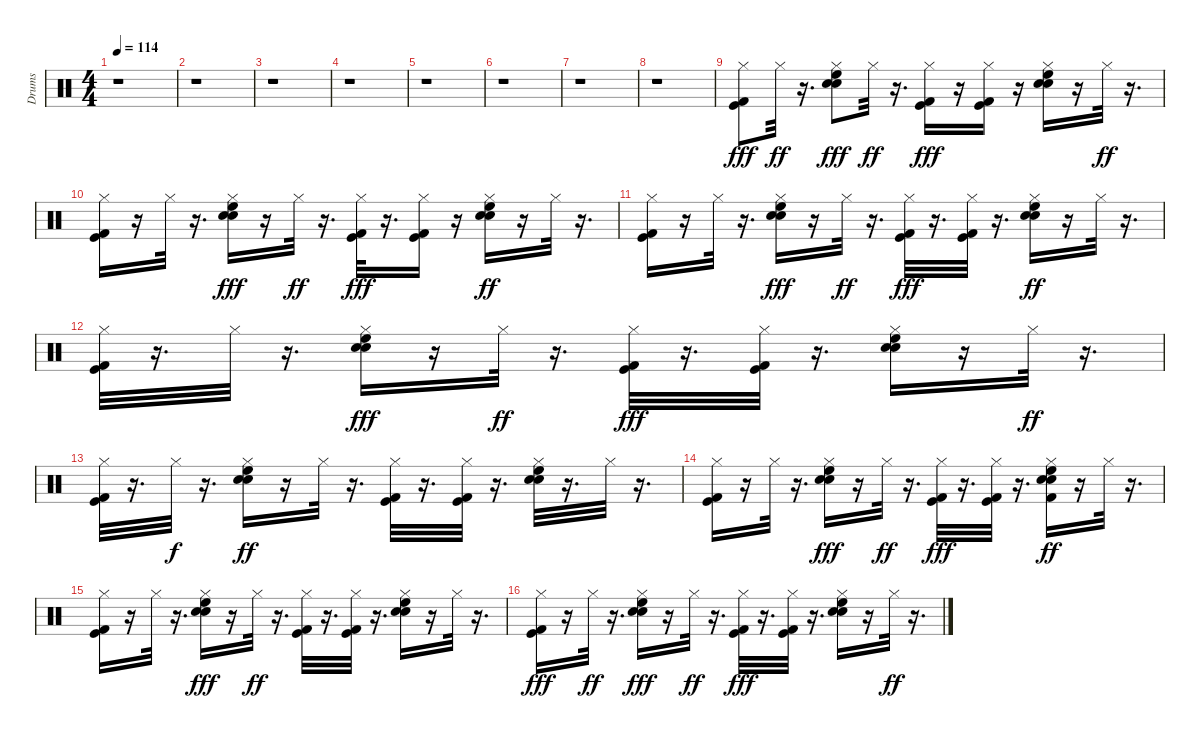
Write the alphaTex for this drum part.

\track ("Drums" "Drums") {instrument percussion}
\staff {score}
\articulation defaults
\ts (4 4)
\tempo 114
\clef neutral
\ks c
r.1{dy fff} |
r.1 |
r.1 |
r.1 |
r.1 |
r.1 |
r.1 |
r.1 |
("Hi-Hat (closed)" "Kick (hit)" "Kick (hit) 2").8{volume 16} "Hi-Hat (closed)".32{dy ff} r.16{d} ("Hi-Hat (closed)" "Snare (hit) 2" "High Floor Tom (hit)" "Electric Snare (hit)").8{dy fff} "Hi-Hat (closed)".32{dy ff} r.16{d} ("Hi-Hat (closed)" "Kick (hit)" "Kick (hit) 2").16{dy fff} r.16 ("Hi-Hat (closed)" "Kick (hit) 2" "Kick (hit)").16 r.16 ("High Floor Tom (hit)" "Snare (hit) 2" "Hi-Hat (closed)" "Electric Snare (hit)").16 r.16 "Hi-Hat (closed)".32{dy ff} r.16{d} |
("Kick (hit)" "Kick (hit) 2" "Hi-Hat (closed)").16 r.16 "Hi-Hat (closed)".32 r.16{d} ("Electric Snare (hit)" "Hi-Hat (closed)" "High Floor Tom (hit)" "Snare (hit) 2").16{dy fff} r.16 "Hi-Hat (closed)".32{dy ff} r.16{d} ("Hi-Hat (closed)" "Kick (hit) 2" "Kick (hit)").32{dy fff} r.16{d} ("Hi-Hat (closed)" "Kick (hit) 2" "Kick (hit)").16 r.16 ("High Floor Tom (hit)" "Snare (hit) 2" "Electric Snare (hit)" "Hi-Hat (closed)").16{dy ff} r.16 "Hi-Hat (closed)".32 r.16{d} |
("Kick (hit) 2" "Kick (hit)" "Hi-Hat (closed)").16 r.16 "Hi-Hat (closed)".32 r.16{d} ("Electric Snare (hit)" "High Floor Tom (hit)" "Hi-Hat (closed)" "Snare (hit) 2").16{dy fff} r.16 "Hi-Hat (closed)".32{dy ff} r.16{d} ("Kick (hit) 2" "Hi-Hat (closed)" "Kick (hit)").32{dy fff} r.16{d} ("Kick (hit) 2" "Hi-Hat (closed)" "Kick (hit)").32 r.16{d} ("High Floor Tom (hit)" "Snare (hit) 2" "Electric Snare (hit)" "Hi-Hat (closed)").16{dy ff} r.16 "Hi-Hat (closed)".32 r.16{d} |
("Kick (hit)" "Kick (hit) 2" "Hi-Hat (closed)").32 r.16{d} "Hi-Hat (closed)".32 r.16{d} ("Hi-Hat (closed)" "Electric Snare (hit)" "Snare (hit) 2" "High Floor Tom (hit)").16{dy fff} r.16 "Hi-Hat (closed)".32{dy ff} r.16{d} ("Hi-Hat (closed)" "Kick (hit) 2" "Kick (hit)").32{dy fff} r.16{d} ("Hi-Hat (closed)" "Kick (hit)" "Kick (hit) 2").32 r.16{d} ("High Floor Tom (hit)" "Snare (hit) 2" "Hi-Hat (closed)" "Electric Snare (hit)").16 r.16 "Hi-Hat (closed)".32{dy ff} r.16{d} |
("Kick (hit)" "Kick (hit) 2" "Hi-Hat (closed)").32 r.16{d} "Hi-Hat (closed)".32{dy f} r.16{d} ("Electric Snare (hit)" "High Floor Tom (hit)" "Snare (hit) 2" "Hi-Hat (closed)").16{dy ff} r.16 "Hi-Hat (closed)".32 r.16{d} ("Kick (hit) 2" "Kick (hit)" "Hi-Hat (closed)").32 r.16{d} ("Kick (hit) 2" "Kick (hit)" "Hi-Hat (closed)").32 r.16{d} ("High Floor Tom (hit)" "Snare (hit) 2" "Electric Snare (hit)" "Hi-Hat (closed)").32 r.16{d} "Hi-Hat (closed)".32 r.16{d} |
("Kick (hit) 2" "Kick (hit)" "Hi-Hat (closed)").16 r.16 "Hi-Hat (closed)".32 r.16{d} ("Electric Snare (hit)" "Hi-Hat (closed)" "Snare (hit) 2" "High Floor Tom (hit)").16{dy fff} r.16 "Hi-Hat (closed)".32{dy ff} r.16{d} ("Kick (hit) 2" "Hi-Hat (closed)" "Kick (hit)").32{dy fff} r.16{d} ("Kick (hit) 2" "Hi-Hat (closed)" "Kick (hit)").32 r.16{d} ("Kick (hit) 2" "Snare (hit) 2" "Electric Snare (hit)" "High Floor Tom (hit)" "Hi-Hat (closed)").16{dy ff} r.16 "Hi-Hat (closed)".32 r.16{d} |
("Kick (hit)" "Kick (hit) 2" "Hi-Hat (closed)").16 r.16 "Hi-Hat (closed)".32 r.16{d} ("Electric Snare (hit)" "High Floor Tom (hit)" "Hi-Hat (closed)" "Snare (hit) 2").16{dy fff} r.16 "Hi-Hat (closed)".32{dy ff} r.16{d} ("Kick (hit) 2" "Kick (hit)" "Hi-Hat (closed)").32 r.16{d} ("Kick (hit) 2" "Kick (hit)" "Hi-Hat (closed)").32 r.16{d} ("Electric Snare (hit)" "Snare (hit) 2" "High Floor Tom (hit)" "Hi-Hat (closed)").16 r.16 "Hi-Hat (closed)".32 r.16{d} |
("Hi-Hat (closed)" "Kick (hit)" "Kick (hit) 2").16{dy fff} r.16 "Hi-Hat (closed)".32{dy ff} r.16{d} ("Electric Snare (hit)" "Snare (hit) 2" "Hi-Hat (closed)" "High Floor Tom (hit)").16{dy fff} r.16 "Hi-Hat (closed)".32{dy ff} r.16{d} ("Kick (hit) 2" "Hi-Hat (closed)" "Kick (hit)").32{dy fff} r.16{d} ("Kick (hit) 2" "Hi-Hat (closed)" "Kick (hit)").32 r.16{d} ("High Floor Tom (hit)" "Snare (hit) 2" "Electric Snare (hit)" "Hi-Hat (closed)").16 r.16 "Hi-Hat (closed)".32{dy ff} r.16{d}
